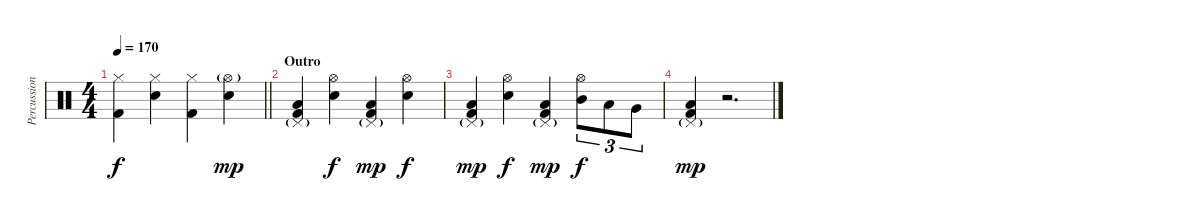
\track ("Percussion" "Percussion") {instrument percussion}
\staff {score}
\articulation defaults
\ts (4 4)
\tempo 170
\clef neutral
\barLineRight lightlight
\ks c
("Hi-Hat (closed)" "Kick (hit) 2").4{dy f} ("Hi-Hat (closed)" "Snare (hit) 2").4 ("Hi-Hat (closed)" "Kick (hit) 2").4 ("Hi-Hat (open)"{g} "Snare (hit) 2").4{dy mp} |
\section ("" "Outro")
("Pedal Hi-Hat (hit)"{g} "Low Floor Tom (hit)" "Kick (hit) 2").4 ("Hi-Hat (open)" "Snare (hit) 2").4{dy f} ("Pedal Hi-Hat (hit)"{g} "Low Floor Tom (hit)" "Kick (hit) 2").4{dy mp} ("Hi-Hat (open)" "Snare (hit) 2").4{dy f} |
("Pedal Hi-Hat (hit)"{g} "Low Floor Tom (hit)" "Kick (hit) 2").4{dy mp} ("Hi-Hat (open)" "Snare (hit) 2").4{dy f} ("Pedal Hi-Hat (hit)"{g} "Low Floor Tom (hit)" "Kick (hit) 2").4{dy mp} ("Hi-Hat (open)" "Mid Tom (hit)").8{tu (3 2) dy f} "Low Tom (hit)".8{tu (3 2)} "Very Low Tom (hit)".8{tu (3 2)} |
("Pedal Hi-Hat (hit)"{g} "Low Floor Tom (hit)" "Kick (hit) 2").4{dy mp} r.2{d}
